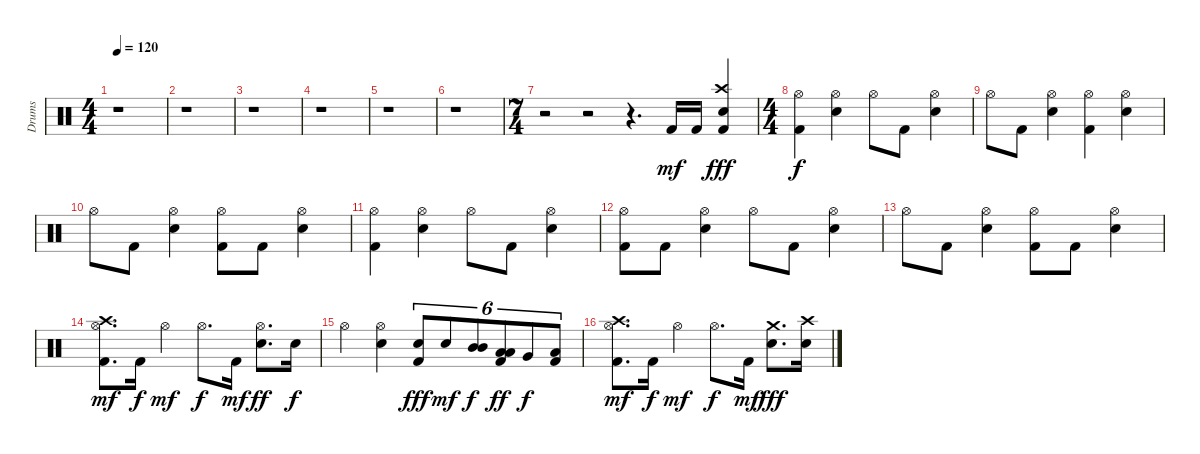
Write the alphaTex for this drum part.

\track ("Drums" "Drums") {instrument percussion}
\staff {score}
\articulation defaults
\ts (4 4)
\tempo 120
\clef neutral
\ks c
r.1{dy mf} |
r.1 |
r.1 |
r.1 |
r.1 |
r.1 |
\ts (7 4)
r.2 r.2 r.4{d} "Kick (hit) 2".16 "Kick (hit) 2".16 ("Crash high (hit)" "Snare (hit) 2" "Kick (hit) 2").4{dy fff} |
\ts (4 4)
("Hi-Hat (open)" "Kick (hit) 2").4{dy f} ("Hi-Hat (open)" "Electric Snare (hit)").4 "Hi-Hat (open)".8 "Kick (hit) 2".8 ("Hi-Hat (open)" "Electric Snare (hit)").4 |
"Hi-Hat (open)".8 "Kick (hit) 2".8 ("Hi-Hat (open)" "Electric Snare (hit)").4 ("Hi-Hat (open)" "Kick (hit) 2").4 ("Hi-Hat (open)" "Electric Snare (hit)").4 |
"Hi-Hat (open)".8 "Kick (hit) 2".8 ("Hi-Hat (open)" "Electric Snare (hit)").4 ("Hi-Hat (open)" "Kick (hit) 2").8 "Kick (hit) 2".8 ("Hi-Hat (open)" "Electric Snare (hit)").4 |
("Hi-Hat (open)" "Kick (hit) 2").4 ("Hi-Hat (open)" "Electric Snare (hit)").4 "Hi-Hat (open)".8 "Kick (hit) 2".8 ("Hi-Hat (open)" "Electric Snare (hit)").4 |
("Hi-Hat (open)" "Kick (hit) 2").8 "Kick (hit) 2".8 ("Hi-Hat (open)" "Electric Snare (hit)").4 "Hi-Hat (open)".8 "Kick (hit) 2".8 ("Hi-Hat (open)" "Electric Snare (hit)").4 |
"Hi-Hat (open)".8 "Kick (hit) 2".8 ("Hi-Hat (open)" "Electric Snare (hit)").4 ("Hi-Hat (open)" "Kick (hit) 2").8 "Kick (hit) 2".8 ("Hi-Hat (open)" "Electric Snare (hit)").4 |
("Hi-Hat (open)" "Crash high (hit)" "Kick (hit) 2").8{d dy mf} "Kick (hit) 2".16{dy f} "Hi-Hat (open)".4{dy mf} "Hi-Hat (open)".8{d dy f} "Kick (hit) 2".16{dy mf} ("Hi-Hat (open)" "Snare (hit) 2").8{d dy ff} "Snare (hit) 2".16{dy f} |
"Hi-Hat (open)".4 ("Hi-Hat (open)" "Snare (hit) 2").4 ("Snare (hit) 2" "Kick (hit) 2").8{tu (6 4) bd 60 dy fff} "Snare (hit) 2".8{tu (6 4) dy mf} ("Mid Tom (hit)" "Mid Tom (hit)").8{tu (6 4) bd 120 dy f} ("Low Tom (hit)" "Low Tom (hit)" "Kick (hit) 2").8{tu (6 4) bd 120 dy ff} "Very Low Tom (hit)".8{tu (6 4) dy f} ("Low Floor Tom (hit)" "Kick (hit) 2").8{tu (6 4)} |
("Hi-Hat (open)" "Crash high (hit)" "Kick (hit) 2").8{d dy mf} "Kick (hit) 2".16{dy f} "Hi-Hat (open)".4{dy mf} "Hi-Hat (open)".8{d dy f} "Kick (hit) 2".16{dy mf} ("Crash medium (hit)" "Snare (hit) 2").8{d dy fff} ("Crash high (hit)" "Snare (hit) 2").16
